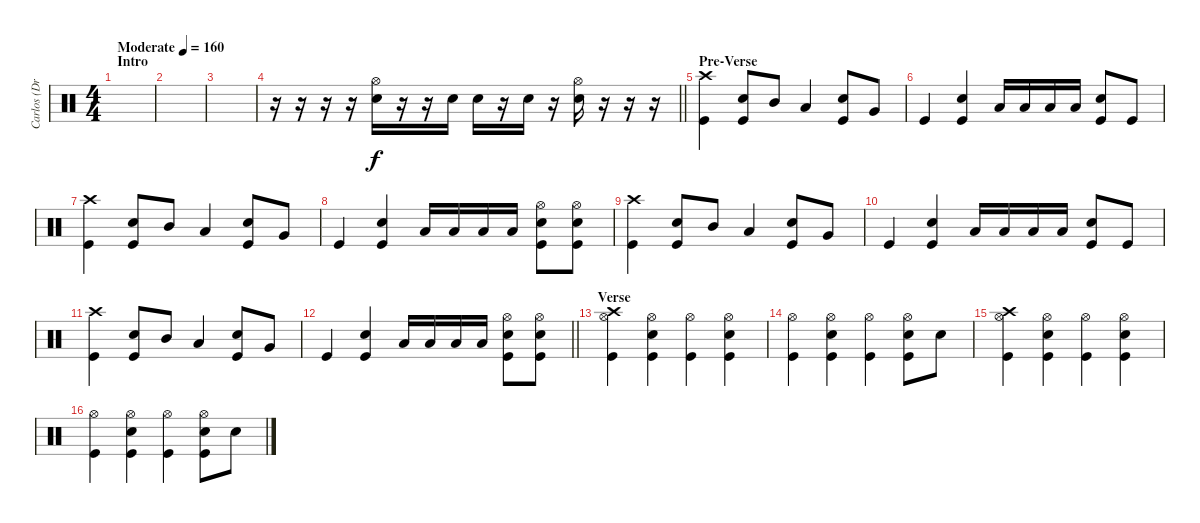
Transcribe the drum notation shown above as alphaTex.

\track ("Carlos (Drums)" "Carlos (Dr") {instrument percussion}
\staff {score}
\articulation defaults
\ts (4 4)
\section ("" "Intro")
\tempo (160 "Moderate")
\clef neutral
\ks c
|
|
|
\barLineRight lightlight
r.16 r.16 r.16 r.16 ("Hi-Hat (open)" "Snare (hit) 2").16 r.16 r.16 "Snare (hit) 2".16 "Snare (hit) 2".16 r.16 "Snare (hit) 2".16 r.16 ("Hi-Hat (open)" "Snare (hit) 2").16 r.16 r.16 r.16 |
\section ("" "Pre-Verse")
("Crash high (hit)" "Kick (hit)").4 ("Snare (hit) 2" "Kick (hit)").8 "Mid Tom (hit)".8 "Low Tom (hit)".4 ("Snare (hit) 2" "Kick (hit)").8 "Very Low Tom (hit)".8 |
"Kick (hit)".4 ("Snare (hit) 2" "Kick (hit)").4 "Low Tom (hit)".16 "Low Tom (hit)".16 "Low Tom (hit)".16 "Low Tom (hit)".16 ("Snare (hit) 2" "Kick (hit)").8 "Kick (hit)".8 |
("Crash high (hit)" "Kick (hit)").4 ("Snare (hit) 2" "Kick (hit)").8 "Mid Tom (hit)".8 "Low Tom (hit)".4 ("Snare (hit) 2" "Kick (hit)").8 "Very Low Tom (hit)".8 |
"Kick (hit)".4 ("Snare (hit) 2" "Kick (hit)").4 "Low Tom (hit)".16 "Low Tom (hit)".16 "Low Tom (hit)".16 "Low Tom (hit)".16 ("Hi-Hat (open)" "Snare (hit) 2" "Kick (hit)").8 ("Hi-Hat (open)" "Snare (hit) 2" "Kick (hit)").8 |
("Crash high (hit)" "Kick (hit)").4 ("Snare (hit) 2" "Kick (hit)").8 "Mid Tom (hit)".8 "Low Tom (hit)".4 ("Snare (hit) 2" "Kick (hit)").8 "Very Low Tom (hit)".8 |
"Kick (hit)".4 ("Snare (hit) 2" "Kick (hit)").4 "Low Tom (hit)".16 "Low Tom (hit)".16 "Low Tom (hit)".16 "Low Tom (hit)".16 ("Snare (hit) 2" "Kick (hit)").8 "Kick (hit)".8 |
("Crash high (hit)" "Kick (hit)").4 ("Snare (hit) 2" "Kick (hit)").8 "Mid Tom (hit)".8 "Low Tom (hit)".4 ("Snare (hit) 2" "Kick (hit)").8 "Very Low Tom (hit)".8 |
\barLineRight lightlight "Kick (hit)".4
("Snare (hit) 2" "Kick (hit)").4 "Low Tom (hit)".16 "Low Tom (hit)".16 "Low Tom (hit)".16 "Low Tom (hit)".16 ("Hi-Hat (open)" "Snare (hit) 2" "Kick (hit)").8 ("Hi-Hat (open)" "Snare (hit) 2" "Kick (hit)").8 |
\section ("" "Verse")
("Crash high (hit)" "Hi-Hat (open)" "Kick (hit)").4 ("Hi-Hat (open)" "Snare (hit) 2" "Kick (hit)").4 ("Hi-Hat (open)" "Kick (hit)").4 ("Hi-Hat (open)" "Snare (hit) 2" "Kick (hit)").4 |
("Hi-Hat (open)" "Kick (hit)").4 ("Hi-Hat (open)" "Snare (hit) 2" "Kick (hit)").4 ("Hi-Hat (open)" "Kick (hit)").4 ("Hi-Hat (open)" "Snare (hit) 2" "Kick (hit)").8 "Snare (hit) 2".8 |
("Crash high (hit)" "Hi-Hat (open)" "Kick (hit)").4 ("Hi-Hat (open)" "Snare (hit) 2" "Kick (hit)").4 ("Hi-Hat (open)" "Kick (hit)").4 ("Hi-Hat (open)" "Snare (hit) 2" "Kick (hit)").4 |
("Hi-Hat (open)" "Kick (hit)").4 ("Hi-Hat (open)" "Snare (hit) 2" "Kick (hit)").4 ("Hi-Hat (open)" "Kick (hit)").4 ("Hi-Hat (open)" "Snare (hit) 2" "Kick (hit)").8 "Snare (hit) 2".8
